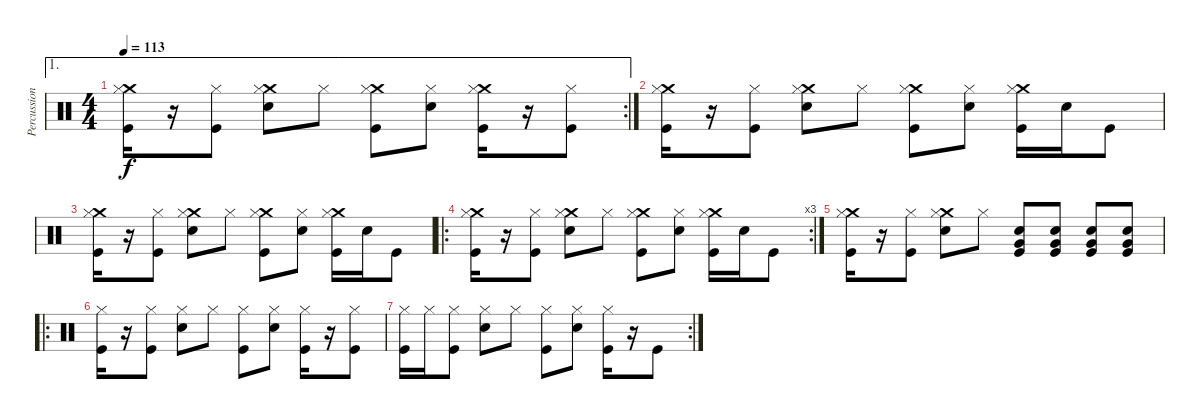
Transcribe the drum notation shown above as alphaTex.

\track ("Percussion" "Percussion") {instrument percussion}
\staff {score}
\articulation defaults
\ae 1
\rc 2
\ts (4 4)
\tempo 113
\clef neutral
\ks c
("Crash medium (hit)" "Hi-Hat (closed)" "Kick (hit)").16{dy f} r.16 ("Hi-Hat (closed)" "Kick (hit)").8 ("Crash medium (hit)" "Hi-Hat (closed)" "Snare (hit) 2").8 "Hi-Hat (closed)".8 ("Crash medium (hit)" "Hi-Hat (closed)" "Kick (hit)").8 ("Hi-Hat (closed)" "Snare (hit) 2").8 ("Crash medium (hit)" "Hi-Hat (closed)" "Kick (hit)").16 r.16 ("Hi-Hat (closed)" "Kick (hit)").8 |
("Crash medium (hit)" "Hi-Hat (closed)" "Kick (hit)").16 r.16 ("Hi-Hat (closed)" "Kick (hit)").8 ("Crash medium (hit)" "Hi-Hat (closed)" "Snare (hit) 2").8 "Hi-Hat (closed)".8 ("Crash medium (hit)" "Hi-Hat (closed)" "Kick (hit)").8 ("Hi-Hat (closed)" "Snare (hit) 2").8 ("Crash medium (hit)" "Hi-Hat (closed)" "Kick (hit)").16 "Snare (hit) 2".16 "Kick (hit)".8 |
("Crash medium (hit)" "Hi-Hat (closed)" "Kick (hit)").16 r.16 ("Hi-Hat (closed)" "Kick (hit)").8 ("Crash medium (hit)" "Hi-Hat (closed)" "Snare (hit) 2").8 "Hi-Hat (closed)".8 ("Crash medium (hit)" "Hi-Hat (closed)" "Kick (hit)").8 ("Hi-Hat (closed)" "Snare (hit) 2").8 ("Crash medium (hit)" "Hi-Hat (closed)" "Kick (hit)").16 "Snare (hit) 2".16 "Kick (hit)".8 |
\ro
\rc 3
("Crash medium (hit)" "Hi-Hat (closed)" "Kick (hit)").16 r.16 ("Hi-Hat (closed)" "Kick (hit)").8 ("Crash medium (hit)" "Hi-Hat (closed)" "Snare (hit) 2").8 "Hi-Hat (closed)".8 ("Crash medium (hit)" "Hi-Hat (closed)" "Kick (hit)").8 ("Hi-Hat (closed)" "Snare (hit) 2").8 ("Crash medium (hit)" "Hi-Hat (closed)" "Kick (hit)").16 "Snare (hit) 2".16 "Kick (hit)".8 |
("Crash medium (hit)" "Hi-Hat (closed)" "Kick (hit)").16 r.16 ("Hi-Hat (closed)" "Kick (hit)").8 ("Crash medium (hit)" "Hi-Hat (closed)" "Snare (hit) 2").8 "Hi-Hat (closed)".8 ("Kick (hit)" "Snare (hit) 2" "Very Low Tom (hit)").8{volume 8} ("Kick (hit)" "Snare (hit) 2" "Very Low Tom (hit)").8{volume 13} ("Kick (hit)" "Snare (hit) 2" "Very Low Tom (hit)").8 ("Kick (hit)" "Snare (hit) 2" "Very Low Tom (hit)").8 |
\ro
("Hi-Hat (closed)" "Kick (hit)").16 r.16 ("Hi-Hat (closed)" "Kick (hit)").8 ("Hi-Hat (closed)" "Snare (hit) 2").8 "Hi-Hat (closed)".8 ("Hi-Hat (closed)" "Kick (hit)").8 ("Hi-Hat (closed)" "Snare (hit) 2").8 ("Hi-Hat (closed)" "Kick (hit)").16 r.16 ("Hi-Hat (closed)" "Kick (hit)").8 |
\rc 2
("Hi-Hat (closed)" "Kick (hit)").16 "Hi-Hat (closed)".16 ("Hi-Hat (closed)" "Kick (hit)").8 ("Hi-Hat (closed)" "Snare (hit) 2").8 "Hi-Hat (closed)".8 ("Hi-Hat (closed)" "Kick (hit)").8 ("Hi-Hat (closed)" "Snare (hit) 2").8 ("Hi-Hat (closed)" "Kick (hit)").16 r.16 "Kick (hit)".8
